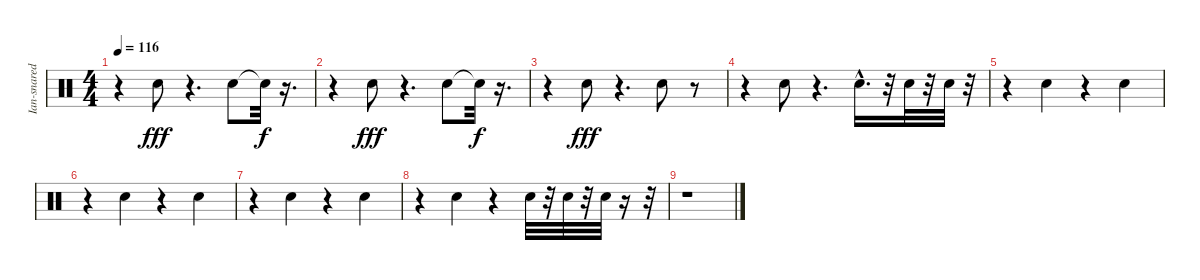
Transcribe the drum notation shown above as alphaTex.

\track ("Ian-snaredrum" "Ian-snared") {instrument percussion}
\staff {score}
\articulation defaults
\ts (4 4)
\tempo 116
\clef neutral
\ks c
r.4{dy fff} "Electric Snare (hit)".8{volume 9} r.4{d} "Electric Snare (hit)".8{volume 8} "Snare (hit)"{t}.32{dy f} r.16{d} |
r.4 "Electric Snare (hit)".8{dy fff volume 8} r.4{d} "Electric Snare (hit)".8{volume 7} "Snare (hit)"{t}.32{dy f} r.16{d} |
r.4 "Electric Snare (hit)".8{dy fff volume 7} r.4{d} "Electric Snare (hit)".8{volume 6} r.8 |
r.4 "Electric Snare (hit)".8{volume 6} r.4{d} "Electric Snare (hit)"{hac}.16{d volume 5} r.32 "Electric Snare (hit)".32{volume 5} r.32 "Electric Snare (hit)".32{volume 5} r.32 |
r.4 "Electric Snare (hit)".4{volume 4} r.4 "Electric Snare (hit)".4{volume 4} |
r.4 "Electric Snare (hit)".4{volume 3} r.4 "Electric Snare (hit)".4{volume 3} |
r.4 "Electric Snare (hit)".4{volume 2} r.4 "Electric Snare (hit)".4{volume 2} |
r.4 "Electric Snare (hit)".4{volume 1} r.4 "Electric Snare (hit)".32{volume 0} r.32 "Electric Snare (hit)".32{volume 0} r.32 "Electric Snare (hit)".32 r.16 r.32 |
r.1
